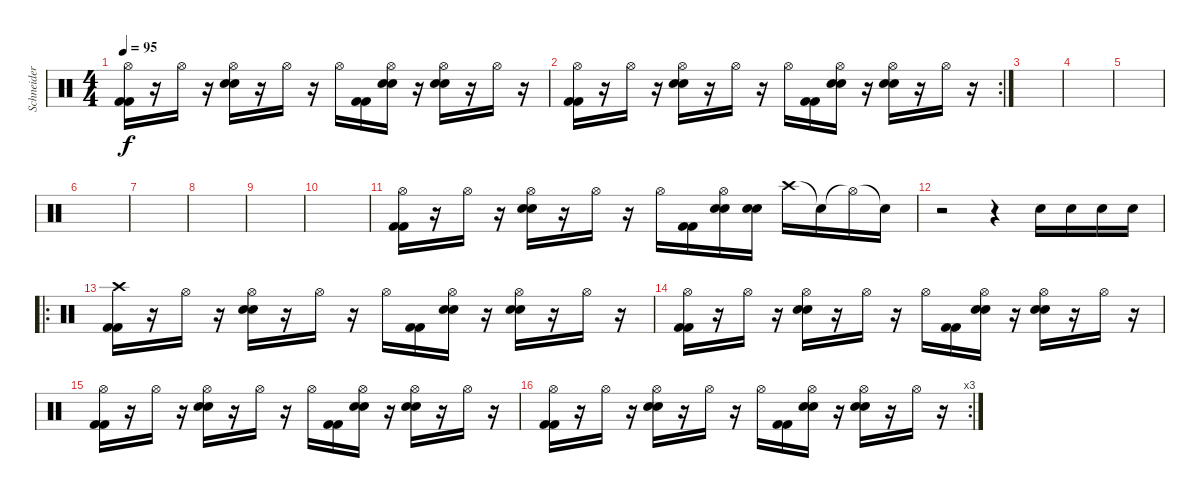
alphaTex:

\track ("Schneider" "Schneider") {instrument percussion}
\staff {score}
\articulation defaults
\ts (4 4)
\tempo 95
\clef neutral
\ks c
("Hi-Hat (open)" "Kick (hit) 2" "Kick (hit) 2").16{dy f} r.16 "Hi-Hat (open)".16 r.16 ("Hi-Hat (open)" "Electric Snare (hit)" "Electric Snare (hit)").16 r.16 "Hi-Hat (open)".16 r.16 "Hi-Hat (open)".16 ("Kick (hit) 2" "Kick (hit) 2").16 ("Hi-Hat (open)" "Electric Snare (hit)" "Electric Snare (hit)").16 r.16 ("Hi-Hat (open)" "Electric Snare (hit)" "Electric Snare (hit)").16 r.16 "Hi-Hat (open)".16 r.16 |
\rc 2
("Hi-Hat (open)" "Kick (hit) 2" "Kick (hit) 2").16 r.16 "Hi-Hat (open)".16 r.16 ("Hi-Hat (open)" "Electric Snare (hit)" "Electric Snare (hit)").16 r.16 "Hi-Hat (open)".16 r.16 "Hi-Hat (open)".16 ("Kick (hit) 2" "Kick (hit) 2").16 ("Hi-Hat (open)" "Electric Snare (hit)" "Electric Snare (hit)").16 r.16 ("Hi-Hat (open)" "Electric Snare (hit)" "Electric Snare (hit)").16 r.16 "Hi-Hat (open)".16 r.16 |
|
|
|
|
|
|
|
|
("Hi-Hat (open)" "Kick (hit) 2" "Kick (hit) 2").16 r.16 "Hi-Hat (open)".16 r.16 ("Hi-Hat (open)" "Electric Snare (hit)" "Electric Snare (hit)").16 r.16 "Hi-Hat (open)".16 r.16 "Hi-Hat (open)".16 ("Kick (hit) 2" "Kick (hit) 2").16 ("Hi-Hat (open)" "Electric Snare (hit)" "Electric Snare (hit)").16 ("Electric Snare (hit)" "Electric Snare (hit)").16 "Crash high (hit)".16 "Snare (hit)"{t}.16 "Hi-Hat (open)"{t}.16 "Snare (hit)"{t}.16 |
r.2 r.4 "Electric Snare (hit)".16 "Electric Snare (hit)".16 "Electric Snare (hit)".16 "Electric Snare (hit)".16 |
\ro
("Crash high (hit)" "Kick (hit) 2" "Kick (hit) 2").16 r.16 "Hi-Hat (open)".16 r.16 ("Hi-Hat (open)" "Electric Snare (hit)" "Electric Snare (hit)").16 r.16 "Hi-Hat (open)".16 r.16 "Hi-Hat (open)".16 ("Kick (hit) 2" "Kick (hit) 2").16 ("Hi-Hat (open)" "Electric Snare (hit)" "Electric Snare (hit)").16 r.16 ("Hi-Hat (open)" "Electric Snare (hit)" "Electric Snare (hit)").16 r.16 "Hi-Hat (open)".16 r.16 |
("Hi-Hat (open)" "Kick (hit) 2" "Kick (hit) 2").16 r.16 "Hi-Hat (open)".16 r.16 ("Hi-Hat (open)" "Electric Snare (hit)" "Electric Snare (hit)").16 r.16 "Hi-Hat (open)".16 r.16 "Hi-Hat (open)".16 ("Kick (hit) 2" "Kick (hit) 2").16 ("Hi-Hat (open)" "Electric Snare (hit)" "Electric Snare (hit)").16 r.16 ("Hi-Hat (open)" "Electric Snare (hit)" "Electric Snare (hit)").16 r.16 "Hi-Hat (open)".16 r.16 |
("Hi-Hat (open)" "Kick (hit) 2" "Kick (hit) 2").16 r.16 "Hi-Hat (open)".16 r.16 ("Hi-Hat (open)" "Electric Snare (hit)" "Electric Snare (hit)").16 r.16 "Hi-Hat (open)".16 r.16 "Hi-Hat (open)".16 ("Kick (hit) 2" "Kick (hit) 2").16 ("Hi-Hat (open)" "Electric Snare (hit)" "Electric Snare (hit)").16 r.16 ("Hi-Hat (open)" "Electric Snare (hit)" "Electric Snare (hit)").16 r.16 "Hi-Hat (open)".16 r.16 |
\rc 3
("Hi-Hat (open)" "Kick (hit) 2" "Kick (hit) 2").16 r.16 "Hi-Hat (open)".16 r.16 ("Hi-Hat (open)" "Electric Snare (hit)" "Electric Snare (hit)").16 r.16 "Hi-Hat (open)".16 r.16 "Hi-Hat (open)".16 ("Kick (hit) 2" "Kick (hit) 2").16 ("Hi-Hat (open)" "Electric Snare (hit)" "Electric Snare (hit)").16 r.16 ("Hi-Hat (open)" "Electric Snare (hit)" "Electric Snare (hit)").16 r.16 "Hi-Hat (open)".16 r.16
